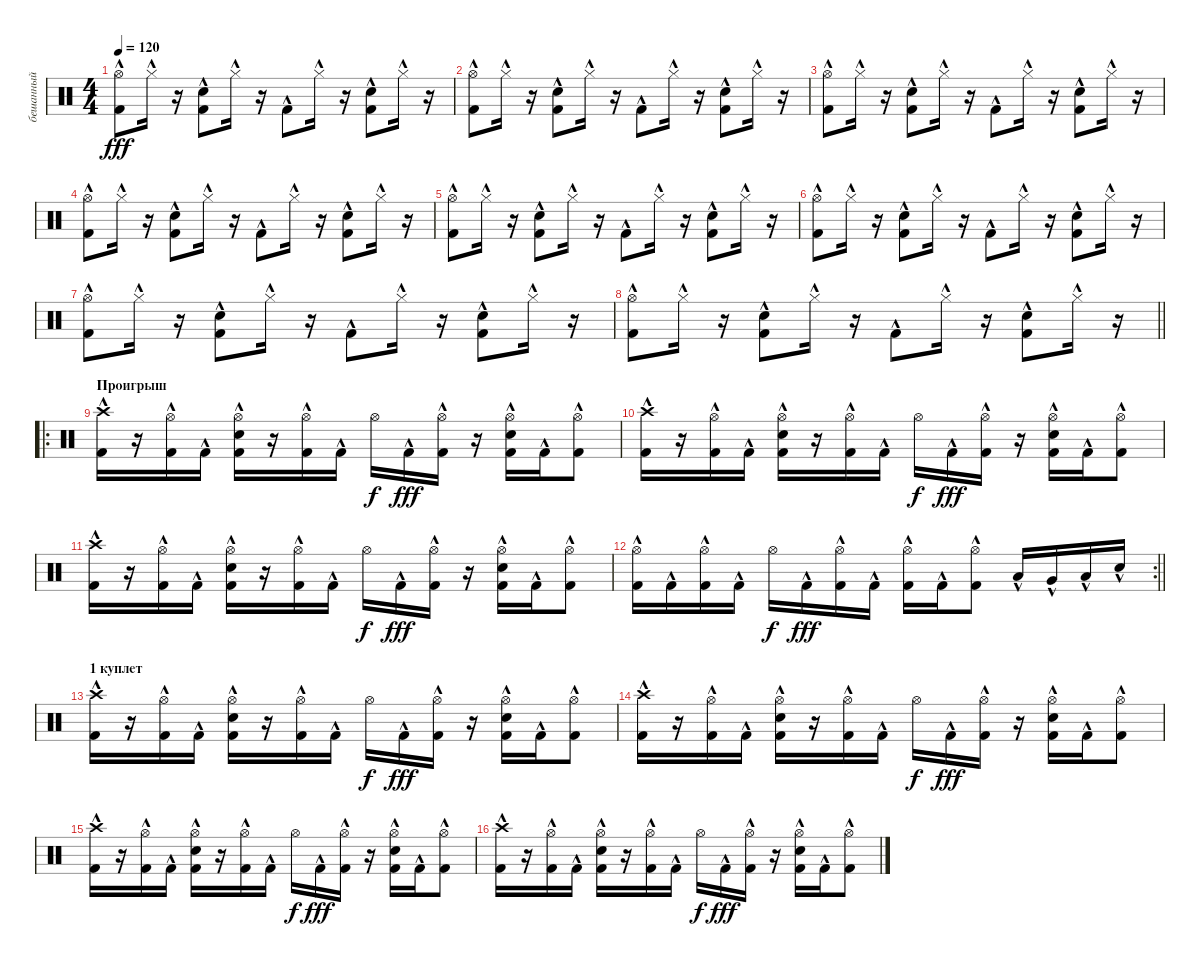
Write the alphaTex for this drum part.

\track ("бешанный" "бешанный") {instrument percussion}
\staff {score}
\articulation defaults
\ts (4 4)
\tempo 120
\clef neutral
\ks c
("Kick (hit) 2"{hac} "Hi-Hat (open)"{hac}).8{dy fff} "Hi-Hat (closed)"{hac}.16 r.16 ("Kick (hit) 2"{hac} "Snare (hit) 2"{hac}).8 "Hi-Hat (closed)"{hac}.16 r.16 "Kick (hit) 2"{hac}.8 "Hi-Hat (closed)"{hac}.16 r.16 ("Kick (hit) 2"{hac} "Snare (hit) 2"{hac}).8 "Hi-Hat (closed)"{hac}.16 r.16 |
("Kick (hit) 2"{hac} "Hi-Hat (open)"{hac}).8 "Hi-Hat (closed)"{hac}.16 r.16 ("Kick (hit) 2"{hac} "Snare (hit) 2"{hac}).8 "Hi-Hat (closed)"{hac}.16 r.16 "Kick (hit) 2"{hac}.8 "Hi-Hat (closed)"{hac}.16 r.16 ("Kick (hit) 2"{hac} "Snare (hit) 2"{hac}).8 "Hi-Hat (closed)"{hac}.16 r.16 |
("Kick (hit) 2"{hac} "Hi-Hat (open)"{hac}).8 "Hi-Hat (closed)"{hac}.16 r.16 ("Kick (hit) 2"{hac} "Snare (hit) 2"{hac}).8 "Hi-Hat (closed)"{hac}.16 r.16 "Kick (hit) 2"{hac}.8 "Hi-Hat (closed)"{hac}.16 r.16 ("Kick (hit) 2"{hac} "Snare (hit) 2"{hac}).8 "Hi-Hat (closed)"{hac}.16 r.16 |
("Kick (hit) 2"{hac} "Hi-Hat (open)"{hac}).8 "Hi-Hat (closed)"{hac}.16 r.16 ("Kick (hit) 2"{hac} "Snare (hit) 2"{hac}).8 "Hi-Hat (closed)"{hac}.16 r.16 "Kick (hit) 2"{hac}.8 "Hi-Hat (closed)"{hac}.16 r.16 ("Kick (hit) 2"{hac} "Snare (hit) 2"{hac}).8 "Hi-Hat (closed)"{hac}.16 r.16 |
("Kick (hit) 2"{hac} "Hi-Hat (open)"{hac}).8 "Hi-Hat (closed)"{hac}.16 r.16 ("Kick (hit) 2"{hac} "Snare (hit) 2"{hac}).8 "Hi-Hat (closed)"{hac}.16 r.16 "Kick (hit) 2"{hac}.8 "Hi-Hat (closed)"{hac}.16 r.16 ("Kick (hit) 2"{hac} "Snare (hit) 2"{hac}).8 "Hi-Hat (closed)"{hac}.16 r.16 |
("Kick (hit) 2"{hac} "Hi-Hat (open)"{hac}).8 "Hi-Hat (closed)"{hac}.16 r.16 ("Kick (hit) 2"{hac} "Snare (hit) 2"{hac}).8 "Hi-Hat (closed)"{hac}.16 r.16 "Kick (hit) 2"{hac}.8 "Hi-Hat (closed)"{hac}.16 r.16 ("Kick (hit) 2"{hac} "Snare (hit) 2"{hac}).8 "Hi-Hat (closed)"{hac}.16 r.16 |
("Kick (hit) 2"{hac} "Hi-Hat (open)"{hac}).8 "Hi-Hat (closed)"{hac}.16 r.16 ("Kick (hit) 2"{hac} "Snare (hit) 2"{hac}).8 "Hi-Hat (closed)"{hac}.16 r.16 "Kick (hit) 2"{hac}.8 "Hi-Hat (closed)"{hac}.16 r.16 ("Kick (hit) 2"{hac} "Snare (hit) 2"{hac}).8 "Hi-Hat (closed)"{hac}.16 r.16 |
\barLineRight lightlight
("Kick (hit) 2"{hac} "Hi-Hat (open)"{hac}).8 "Hi-Hat (closed)"{hac}.16 r.16 ("Kick (hit) 2"{hac} "Snare (hit) 2"{hac}).8 "Hi-Hat (closed)"{hac}.16 r.16 "Kick (hit) 2"{hac}.8 "Hi-Hat (closed)"{hac}.16 r.16 ("Kick (hit) 2"{hac} "Snare (hit) 2"{hac}).8 "Hi-Hat (closed)"{hac}.16 r.16 |
\ro
\section ("" "Проигрыш")
("Kick (hit) 2"{hac} "Crash high (hit)").16 r.16 ("Kick (hit) 2"{hac} "Hi-Hat (open)").16 "Kick (hit) 2"{hac}.16 ("Kick (hit) 2"{hac} "Snare (hit) 2"{hac} "Hi-Hat (open)").16 r.16 ("Kick (hit) 2"{hac} "Hi-Hat (open)").16 "Kick (hit) 2"{hac}.16 "Hi-Hat (open)".16{dy f} "Kick (hit) 2"{hac}.16{dy fff} ("Kick (hit) 2"{hac} "Hi-Hat (open)").16 r.16 ("Kick (hit) 2"{hac} "Snare (hit) 2"{hac} "Hi-Hat (open)").16 "Kick (hit) 2"{hac}.16 ("Kick (hit) 2"{hac} "Hi-Hat (open)").8 |
("Kick (hit) 2"{hac} "Crash high (hit)").16 r.16 ("Kick (hit) 2"{hac} "Hi-Hat (open)").16 "Kick (hit) 2"{hac}.16 ("Kick (hit) 2"{hac} "Snare (hit) 2"{hac} "Hi-Hat (open)").16 r.16 ("Kick (hit) 2"{hac} "Hi-Hat (open)").16 "Kick (hit) 2"{hac}.16 "Hi-Hat (open)".16{dy f} "Kick (hit) 2"{hac}.16{dy fff} ("Kick (hit) 2"{hac} "Hi-Hat (open)").16 r.16 ("Kick (hit) 2"{hac} "Snare (hit) 2"{hac} "Hi-Hat (open)").16 "Kick (hit) 2"{hac}.16 ("Kick (hit) 2"{hac} "Hi-Hat (open)").8 |
("Kick (hit) 2"{hac} "Crash high (hit)"{hac}).16 r.16 ("Kick (hit) 2"{hac} "Hi-Hat (open)").16 "Kick (hit) 2"{hac}.16 ("Kick (hit) 2"{hac} "Snare (hit) 2"{hac} "Hi-Hat (open)").16 r.16 ("Kick (hit) 2"{hac} "Hi-Hat (open)").16 "Kick (hit) 2"{hac}.16 "Hi-Hat (open)".16{dy f} "Kick (hit) 2"{hac}.16{dy fff} ("Kick (hit) 2"{hac} "Hi-Hat (open)").16 r.16 ("Kick (hit) 2"{hac} "Snare (hit) 2"{hac} "Hi-Hat (open)").16 "Kick (hit) 2"{hac}.16 ("Kick (hit) 2"{hac} "Hi-Hat (open)").8 |
\rc 2
\barLineRight lightlight
("Kick (hit) 2"{hac} "Hi-Hat (open)").16 "Kick (hit) 2"{hac}.16 ("Kick (hit) 2"{hac} "Hi-Hat (open)").16 "Kick (hit) 2"{hac}.16 "Hi-Hat (open)".16{dy f} "Kick (hit) 2"{hac}.16{dy fff} ("Kick (hit) 2"{hac} "Hi-Hat (open)").16 "Kick (hit) 2"{hac}.16 ("Kick (hit) 2"{hac} "Hi-Hat (open)").16 "Kick (hit) 2"{hac}.16 ("Kick (hit) 2"{hac} "Hi-Hat (open)").8 "Low Tom (hit)"{hac}.16 "Very Low Tom (hit)"{hac}.16 "Low Floor Tom (hit)"{hac}.16 "Snare (hit) 2"{hac}.16 |
\section ("" "1 куплет")
("Kick (hit) 2"{hac} "Crash high (hit)"{hac}).16 r.16 ("Kick (hit) 2"{hac} "Hi-Hat (open)").16 "Kick (hit) 2"{hac}.16 ("Kick (hit) 2"{hac} "Snare (hit) 2"{hac} "Hi-Hat (open)").16 r.16 ("Kick (hit) 2"{hac} "Hi-Hat (open)").16 "Kick (hit) 2"{hac}.16 "Hi-Hat (open)".16{dy f} "Kick (hit) 2"{hac}.16{dy fff} ("Kick (hit) 2"{hac} "Hi-Hat (open)").16 r.16 ("Kick (hit) 2"{hac} "Snare (hit) 2"{hac} "Hi-Hat (open)").16 "Kick (hit) 2"{hac}.16 ("Kick (hit) 2"{hac} "Hi-Hat (open)").8 |
("Kick (hit) 2"{hac} "Crash high (hit)"{hac}).16 r.16 ("Kick (hit) 2"{hac} "Hi-Hat (open)").16 "Kick (hit) 2"{hac}.16 ("Kick (hit) 2"{hac} "Snare (hit) 2"{hac} "Hi-Hat (open)").16 r.16 ("Kick (hit) 2"{hac} "Hi-Hat (open)").16 "Kick (hit) 2"{hac}.16 "Hi-Hat (open)".16{dy f} "Kick (hit) 2"{hac}.16{dy fff} ("Kick (hit) 2"{hac} "Hi-Hat (open)").16 r.16 ("Kick (hit) 2"{hac} "Snare (hit) 2"{hac} "Hi-Hat (open)").16 "Kick (hit) 2"{hac}.16 ("Kick (hit) 2"{hac} "Hi-Hat (open)").8 |
("Kick (hit) 2"{hac} "Crash high (hit)"{hac}).16 r.16 ("Kick (hit) 2"{hac} "Hi-Hat (open)").16 "Kick (hit) 2"{hac}.16 ("Kick (hit) 2"{hac} "Snare (hit) 2"{hac} "Hi-Hat (open)").16 r.16 ("Kick (hit) 2"{hac} "Hi-Hat (open)").16 "Kick (hit) 2"{hac}.16 "Hi-Hat (open)".16{dy f} "Kick (hit) 2"{hac}.16{dy fff} ("Kick (hit) 2"{hac} "Hi-Hat (open)").16 r.16 ("Kick (hit) 2"{hac} "Snare (hit) 2"{hac} "Hi-Hat (open)").16 "Kick (hit) 2"{hac}.16 ("Kick (hit) 2"{hac} "Hi-Hat (open)").8 |
("Kick (hit) 2"{hac} "Crash high (hit)"{hac}).16 r.16 ("Kick (hit) 2"{hac} "Hi-Hat (open)").16 "Kick (hit) 2"{hac}.16 ("Kick (hit) 2"{hac} "Snare (hit) 2"{hac} "Hi-Hat (open)").16 r.16 ("Kick (hit) 2"{hac} "Hi-Hat (open)").16 "Kick (hit) 2"{hac}.16 "Hi-Hat (open)".16{dy f} "Kick (hit) 2"{hac}.16{dy fff} ("Kick (hit) 2"{hac} "Hi-Hat (open)").16 r.16 ("Kick (hit) 2"{hac} "Snare (hit) 2"{hac} "Hi-Hat (open)").16 "Kick (hit) 2"{hac}.16 ("Kick (hit) 2"{hac} "Hi-Hat (open)").8
